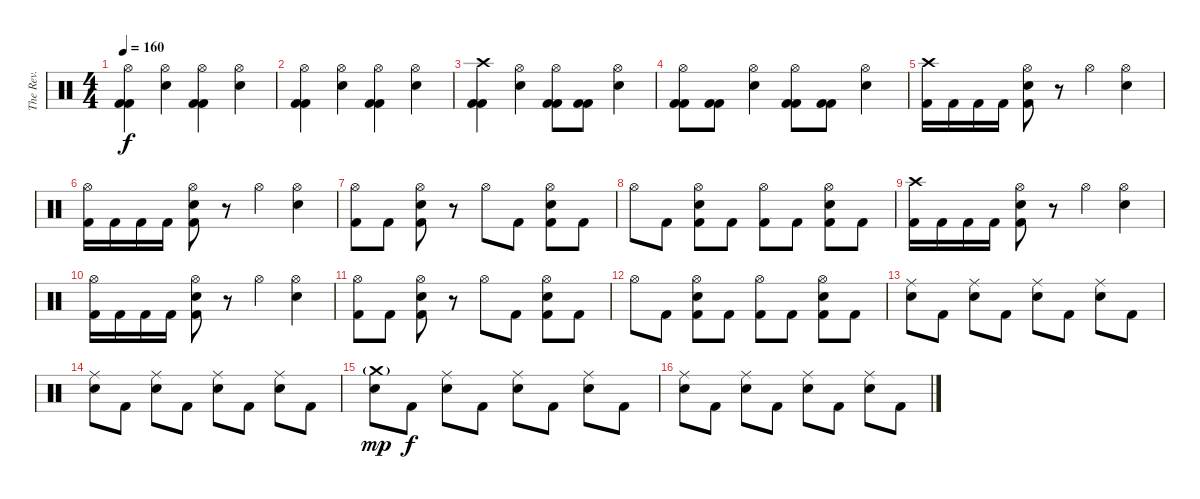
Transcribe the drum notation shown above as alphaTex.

\track ("The Rev." "The Rev.") {instrument percussion}
\staff {score}
\articulation defaults
\ts (4 4)
\tempo 160
\clef neutral
\ks c
("Hi-Hat (open)" "Kick (hit) 2" "Kick (hit) 2").4{dy f} ("Hi-Hat (open)" "Electric Snare (hit)").4 ("Hi-Hat (open)" "Kick (hit) 2" "Kick (hit) 2").4 ("Hi-Hat (open)" "Electric Snare (hit)").4 |
("Hi-Hat (open)" "Kick (hit) 2" "Kick (hit) 2").4 ("Hi-Hat (open)" "Electric Snare (hit)").4 ("Hi-Hat (open)" "Kick (hit) 2" "Kick (hit) 2").4 ("Hi-Hat (open)" "Electric Snare (hit)").4 |
("Crash high (hit)" "Kick (hit) 2" "Kick (hit) 2").4 ("Hi-Hat (open)" "Electric Snare (hit)").4 ("Hi-Hat (open)" "Kick (hit) 2" "Kick (hit) 2").8 ("Kick (hit) 2" "Kick (hit) 2").8 ("Hi-Hat (open)" "Electric Snare (hit)").4 |
("Hi-Hat (open)" "Kick (hit) 2" "Kick (hit) 2").8 ("Kick (hit) 2" "Kick (hit) 2").8 ("Hi-Hat (open)" "Electric Snare (hit)").4 ("Hi-Hat (open)" "Kick (hit) 2" "Kick (hit) 2").8 ("Kick (hit) 2" "Kick (hit) 2").8 ("Hi-Hat (open)" "Electric Snare (hit)").4 |
("Crash high (hit)" "Kick (hit) 2").16 "Kick (hit) 2".16 "Kick (hit) 2".16 "Kick (hit) 2".16 ("Hi-Hat (open)" "Electric Snare (hit)" "Kick (hit) 2").8 r.8 "Hi-Hat (open)".4 ("Hi-Hat (open)" "Electric Snare (hit)").4 |
("Hi-Hat (open)" "Kick (hit) 2").16 "Kick (hit) 2".16 "Kick (hit) 2".16 "Kick (hit) 2".16 ("Hi-Hat (open)" "Electric Snare (hit)" "Kick (hit) 2").8 r.8 "Hi-Hat (open)".4 ("Hi-Hat (open)" "Electric Snare (hit)").4 |
("Hi-Hat (open)" "Kick (hit) 2").8 "Kick (hit) 2".8 ("Hi-Hat (open)" "Electric Snare (hit)" "Kick (hit) 2").8 r.8 "Hi-Hat (open)".8 "Kick (hit) 2".8 ("Hi-Hat (open)" "Electric Snare (hit)" "Kick (hit) 2").8 "Kick (hit) 2".8 |
"Hi-Hat (open)".8 "Kick (hit) 2".8 ("Hi-Hat (open)" "Electric Snare (hit)" "Kick (hit) 2").8 "Kick (hit) 2".8 ("Hi-Hat (open)" "Kick (hit) 2").8 "Kick (hit) 2".8 ("Hi-Hat (open)" "Electric Snare (hit)" "Kick (hit) 2").8 "Kick (hit) 2".8 |
("Crash high (hit)" "Kick (hit) 2").16 "Kick (hit) 2".16 "Kick (hit) 2".16 "Kick (hit) 2".16 ("Hi-Hat (open)" "Electric Snare (hit)" "Kick (hit) 2").8 r.8 "Hi-Hat (open)".4 ("Hi-Hat (open)" "Electric Snare (hit)").4 |
("Hi-Hat (open)" "Kick (hit) 2").16 "Kick (hit) 2".16 "Kick (hit) 2".16 "Kick (hit) 2".16 ("Hi-Hat (open)" "Electric Snare (hit)" "Kick (hit) 2").8 r.8 "Hi-Hat (open)".4 ("Hi-Hat (open)" "Electric Snare (hit)").4 |
("Hi-Hat (open)" "Kick (hit) 2").8 "Kick (hit) 2".8 ("Hi-Hat (open)" "Electric Snare (hit)" "Kick (hit) 2").8 r.8 "Hi-Hat (open)".8 "Kick (hit) 2".8 ("Hi-Hat (open)" "Electric Snare (hit)" "Kick (hit) 2").8 "Kick (hit) 2".8 |
"Hi-Hat (open)".8 "Kick (hit) 2".8 ("Hi-Hat (open)" "Electric Snare (hit)" "Kick (hit) 2").8 "Kick (hit) 2".8 ("Hi-Hat (open)" "Kick (hit) 2").8 "Kick (hit) 2".8 ("Hi-Hat (open)" "Electric Snare (hit)" "Kick (hit) 2").8 "Kick (hit) 2".8 |
("Ride (middle)" "Electric Snare (hit)").8 "Kick (hit) 2".8 ("Ride (middle)" "Electric Snare (hit)").8 "Kick (hit) 2".8 ("Ride (middle)" "Electric Snare (hit)").8 "Kick (hit) 2".8 ("Ride (middle)" "Electric Snare (hit)").8 "Kick (hit) 2".8 |
("Ride (middle)" "Electric Snare (hit)").8 "Kick (hit) 2".8 ("Ride (middle)" "Electric Snare (hit)").8 "Kick (hit) 2".8 ("Ride (middle)" "Electric Snare (hit)").8 "Kick (hit) 2".8 ("Ride (middle)" "Electric Snare (hit)").8 "Kick (hit) 2".8 |
("Crash medium (hit)"{g} "Electric Snare (hit)").8{dy mp} "Kick (hit) 2".8{dy f} ("Ride (middle)" "Electric Snare (hit)").8 "Kick (hit) 2".8 ("Ride (middle)" "Electric Snare (hit)").8 "Kick (hit) 2".8 ("Ride (middle)" "Electric Snare (hit)").8 "Kick (hit) 2".8 |
("Ride (middle)" "Electric Snare (hit)").8 "Kick (hit) 2".8 ("Ride (middle)" "Electric Snare (hit)").8 "Kick (hit) 2".8 ("Ride (middle)" "Electric Snare (hit)").8 "Kick (hit) 2".8 ("Ride (middle)" "Electric Snare (hit)").8 "Kick (hit) 2".8
